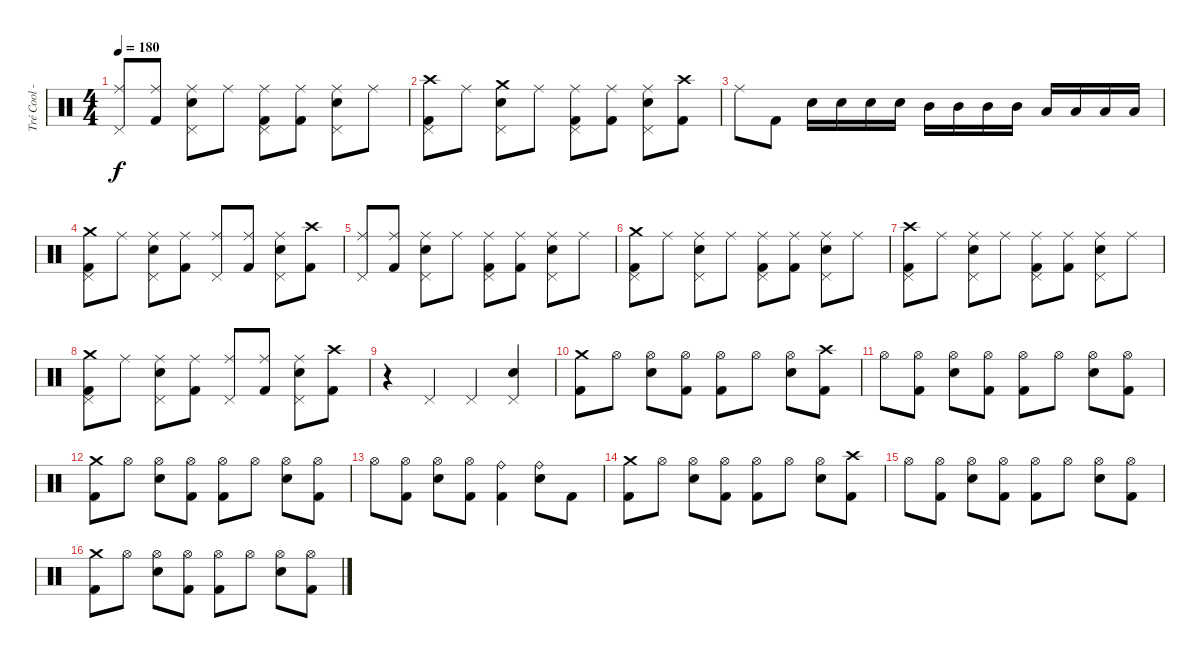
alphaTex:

\track ("Tré Cool - Drums" "Tré Cool -") {instrument percussion}
\staff {score}
\articulation defaults
\ts (4 4)
\tempo 180
\clef neutral
\ks c
("Ride (middle)" "Pedal Hi-Hat (hit)").8{dy f} ("Ride (middle)" "Kick (hit) 2").8 ("Ride (middle)" "Pedal Hi-Hat (hit)" "Electric Snare (hit)").8 "Ride (middle)".8 ("Ride (middle)" "Pedal Hi-Hat (hit)" "Kick (hit) 2").8 ("Ride (middle)" "Kick (hit) 2").8 ("Ride (middle)" "Pedal Hi-Hat (hit)" "Electric Snare (hit)").8 "Ride (middle)".8 |
("Crash high (hit)" "Pedal Hi-Hat (hit)" "Kick (hit) 2").8 "Ride (middle)".8 ("Crash medium (hit)" "Pedal Hi-Hat (hit)" "Electric Snare (hit)").8 "Ride (middle)".8 ("Ride (middle)" "Pedal Hi-Hat (hit)" "Kick (hit) 2").8 ("Ride (middle)" "Kick (hit) 2").8 ("Ride (middle)" "Pedal Hi-Hat (hit)" "Electric Snare (hit)").8 ("Crash high (hit)" "Kick (hit) 2").8 |
"Ride (middle)".8 "Kick (hit) 2".8 "Electric Snare (hit)".16 "Electric Snare (hit)".16 "Electric Snare (hit)".16 "Electric Snare (hit)".16 "Mid Tom (hit)".16 "Mid Tom (hit)".16 "Mid Tom (hit)".16 "Mid Tom (hit)".16 "Low Tom (hit)".16 "Low Tom (hit)".16 "Low Tom (hit)".16 "Low Tom (hit)".16 |
("Crash medium (hit)" "Pedal Hi-Hat (hit)" "Kick (hit) 2").8 "Ride (middle)".8 ("Ride (middle)" "Pedal Hi-Hat (hit)" "Electric Snare (hit)").8 ("Ride (middle)" "Kick (hit) 2").8 ("Ride (middle)" "Pedal Hi-Hat (hit)").8 ("Ride (middle)" "Kick (hit) 2").8 ("Ride (middle)" "Pedal Hi-Hat (hit)" "Electric Snare (hit)").8 ("Crash high (hit)" "Kick (hit) 2").8 |
("Ride (middle)" "Pedal Hi-Hat (hit)").8 ("Ride (middle)" "Kick (hit) 2").8 ("Ride (middle)" "Pedal Hi-Hat (hit)" "Electric Snare (hit)").8 "Ride (middle)".8 ("Ride (middle)" "Pedal Hi-Hat (hit)" "Kick (hit) 2").8 ("Ride (middle)" "Kick (hit) 2").8 ("Ride (middle)" "Pedal Hi-Hat (hit)" "Electric Snare (hit)").8 "Ride (middle)".8 |
("Crash medium (hit)" "Pedal Hi-Hat (hit)" "Kick (hit) 2").8 "Ride (middle)".8 ("Ride (middle)" "Pedal Hi-Hat (hit)" "Electric Snare (hit)").8 "Ride (middle)".8 ("Ride (middle)" "Pedal Hi-Hat (hit)" "Kick (hit) 2").8 ("Ride (middle)" "Kick (hit) 2").8 ("Ride (middle)" "Pedal Hi-Hat (hit)" "Electric Snare (hit)").8 "Ride (middle)".8 |
("Crash high (hit)" "Pedal Hi-Hat (hit)" "Kick (hit) 2").8 "Ride (middle)".8 ("Ride (middle)" "Pedal Hi-Hat (hit)" "Electric Snare (hit)").8 "Ride (middle)".8 ("Ride (middle)" "Pedal Hi-Hat (hit)" "Kick (hit) 2").8 ("Ride (middle)" "Kick (hit) 2").8 ("Ride (middle)" "Pedal Hi-Hat (hit)" "Electric Snare (hit)").8 "Ride (middle)".8 |
("Crash medium (hit)" "Pedal Hi-Hat (hit)" "Kick (hit) 2").8 "Ride (middle)".8 ("Ride (middle)" "Pedal Hi-Hat (hit)" "Electric Snare (hit)").8 ("Ride (middle)" "Kick (hit) 2").8 ("Ride (middle)" "Pedal Hi-Hat (hit)").8 ("Ride (middle)" "Kick (hit) 2").8 ("Ride (middle)" "Pedal Hi-Hat (hit)" "Electric Snare (hit)").8 ("Crash high (hit)" "Kick (hit) 2").8 |
r.4 "Pedal Hi-Hat (hit)".4 "Pedal Hi-Hat (hit)".4 ("Pedal Hi-Hat (hit)" "Electric Snare (hit)").4 |
("Crash medium (hit)" "Kick (hit) 2").8 "Hi-Hat (open)".8 ("Hi-Hat (open)" "Electric Snare (hit)").8 ("Hi-Hat (open)" "Kick (hit) 2").8 ("Hi-Hat (open)" "Kick (hit) 2").8 "Hi-Hat (open)".8 ("Hi-Hat (open)" "Electric Snare (hit)").8 ("Crash high (hit)" "Kick (hit) 2").8 |
"Hi-Hat (open)".8 ("Hi-Hat (open)" "Kick (hit) 2").8 ("Hi-Hat (open)" "Electric Snare (hit)").8 ("Hi-Hat (open)" "Kick (hit) 2").8 ("Hi-Hat (open)" "Kick (hit) 2").8 "Hi-Hat (open)".8 ("Hi-Hat (open)" "Electric Snare (hit)").8 ("Hi-Hat (open)" "Kick (hit) 2").8 |
("Crash medium (hit)" "Kick (hit) 2").8 "Hi-Hat (open)".8 ("Hi-Hat (open)" "Electric Snare (hit)").8 ("Hi-Hat (open)" "Kick (hit) 2").8 ("Hi-Hat (open)" "Kick (hit) 2").8 "Hi-Hat (open)".8 ("Hi-Hat (open)" "Electric Snare (hit)").8 ("Hi-Hat (open)" "Kick (hit) 2").8 |
"Hi-Hat (open)".8 ("Hi-Hat (open)" "Kick (hit) 2").8 ("Hi-Hat (open)" "Electric Snare (hit)").8 ("Hi-Hat (open)" "Kick (hit) 2").8 ("Ride (bell)" "Kick (hit) 2").4 ("Ride (bell)" "Electric Snare (hit)").8 "Kick (hit) 2".8 |
("Crash medium (hit)" "Kick (hit) 2").8 "Hi-Hat (open)".8 ("Hi-Hat (open)" "Electric Snare (hit)").8 ("Hi-Hat (open)" "Kick (hit) 2").8 ("Hi-Hat (open)" "Kick (hit) 2").8 "Hi-Hat (open)".8 ("Hi-Hat (open)" "Electric Snare (hit)").8 ("Crash high (hit)" "Kick (hit) 2").8 |
"Hi-Hat (open)".8 ("Hi-Hat (open)" "Kick (hit) 2").8 ("Hi-Hat (open)" "Electric Snare (hit)").8 ("Hi-Hat (open)" "Kick (hit) 2").8 ("Hi-Hat (open)" "Kick (hit) 2").8 "Hi-Hat (open)".8 ("Hi-Hat (open)" "Electric Snare (hit)").8 ("Hi-Hat (open)" "Kick (hit) 2").8 |
("Crash medium (hit)" "Kick (hit) 2").8 "Hi-Hat (open)".8 ("Hi-Hat (open)" "Electric Snare (hit)").8 ("Hi-Hat (open)" "Kick (hit) 2").8 ("Hi-Hat (open)" "Kick (hit) 2").8 "Hi-Hat (open)".8 ("Hi-Hat (open)" "Electric Snare (hit)").8 ("Hi-Hat (open)" "Kick (hit) 2").8
